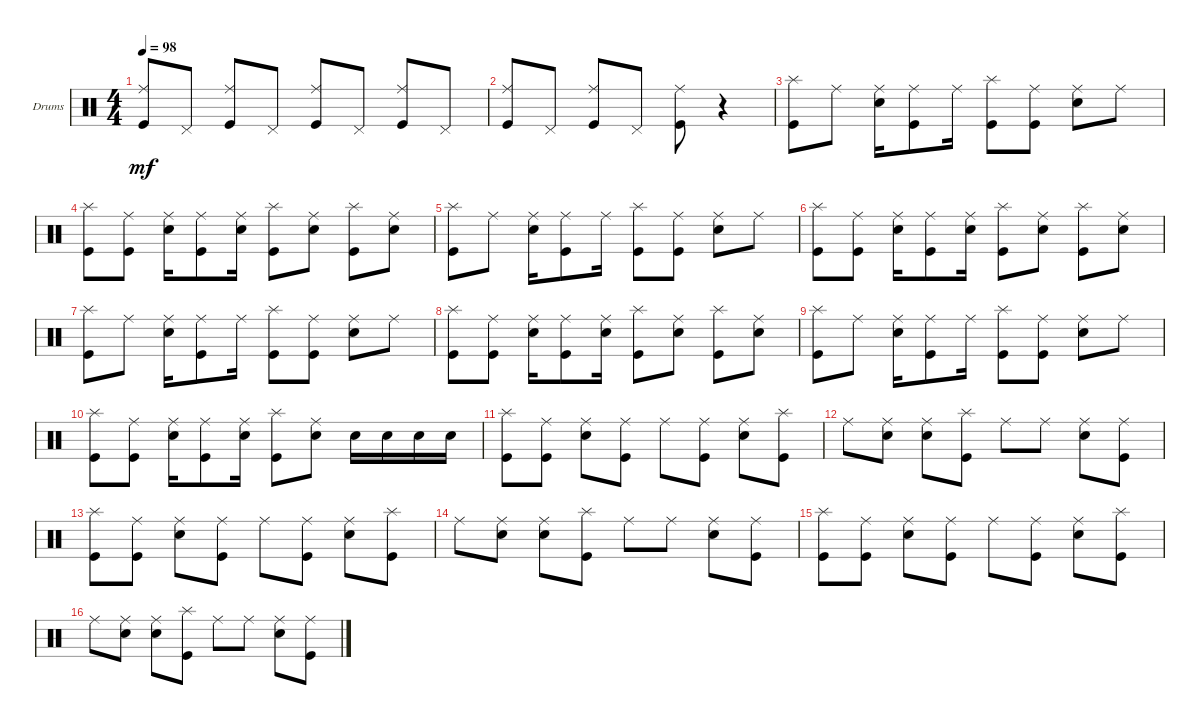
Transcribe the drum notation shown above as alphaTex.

\defaultSystemsLayout 4
\bracketExtendMode groupsimilarinstruments
\firstSystemTrackNameOrientation horizontal
\otherSystemsTrackNameOrientation horizontal
\track ("Frank Fontsere" "Drums") {instrument percussion}
\staff {score}
\articulation defaults
\ts (4 4)
\tempo 98
\clef neutral
\ks c
("Kick (hit)" "Ride (middle)").8{dy mf} "Pedal Hi-Hat (hit)".8 ("Ride (middle)" "Kick (hit)").8 "Pedal Hi-Hat (hit)".8 ("Ride (middle)" "Kick (hit)").8 "Pedal Hi-Hat (hit)".8 ("Kick (hit)" "Ride (middle)").8 "Pedal Hi-Hat (hit)".8 |
("Kick (hit)" "Ride (middle)").8 "Pedal Hi-Hat (hit)".8 ("Ride (middle)" "Kick (hit)").8 "Pedal Hi-Hat (hit)".8 ("Ride (middle)" "Kick (hit)").8 r.4 |
("Kick (hit)" "Splash (hit)").8 "Ride (middle)".8 ("Ride (middle)" "Snare (hit) 2").16 ("Ride (middle)" "Kick (hit)").8 "Ride (middle)".16 ("Kick (hit)" "Splash (hit)").8 ("Ride (middle)" "Kick (hit)").8 ("Snare (hit) 2" "Ride (middle)").8 "Ride (middle)".8 |
("Kick (hit)" "Splash (hit)").8 ("Kick (hit)" "Ride (middle)").8 ("Snare (hit) 2" "Ride (middle)").16 ("Kick (hit)" "Ride (middle)").8 ("Ride (middle)" "Snare (hit) 2").16 ("Kick (hit)" "Splash (hit)").8 ("Snare (hit) 2" "Ride (middle)").8 ("Kick (hit)" "Splash (hit)").8 ("Snare (hit) 2" "Ride (middle)").8 |
("Kick (hit)" "Splash (hit)").8 "Ride (middle)".8 ("Ride (middle)" "Snare (hit) 2").16 ("Ride (middle)" "Kick (hit)").8 "Ride (middle)".16 ("Kick (hit)" "Splash (hit)").8 ("Ride (middle)" "Kick (hit)").8 ("Snare (hit) 2" "Ride (middle)").8 "Ride (middle)".8 |
("Kick (hit)" "Splash (hit)").8 ("Kick (hit)" "Ride (middle)").8 ("Snare (hit) 2" "Ride (middle)").16 ("Kick (hit)" "Ride (middle)").8 ("Ride (middle)" "Snare (hit) 2").16 ("Kick (hit)" "Splash (hit)").8 ("Snare (hit) 2" "Ride (middle)").8 ("Kick (hit)" "Splash (hit)").8 ("Snare (hit) 2" "Ride (middle)").8 |
("Kick (hit)" "Splash (hit)").8 "Ride (middle)".8 ("Ride (middle)" "Snare (hit) 2").16 ("Ride (middle)" "Kick (hit)").8 "Ride (middle)".16 ("Kick (hit)" "Splash (hit)").8 ("Ride (middle)" "Kick (hit)").8 ("Snare (hit) 2" "Ride (middle)").8 "Ride (middle)".8 |
("Kick (hit)" "Splash (hit)").8 ("Kick (hit)" "Ride (middle)").8 ("Snare (hit) 2" "Ride (middle)").16 ("Kick (hit)" "Ride (middle)").8 ("Ride (middle)" "Snare (hit) 2").16 ("Kick (hit)" "Splash (hit)").8 ("Snare (hit) 2" "Ride (middle)").8 ("Kick (hit)" "Splash (hit)").8 ("Snare (hit) 2" "Ride (middle)").8 |
("Kick (hit)" "Splash (hit)").8 "Ride (middle)".8 ("Ride (middle)" "Snare (hit) 2").16 ("Ride (middle)" "Kick (hit)").8 "Ride (middle)".16 ("Kick (hit)" "Splash (hit)").8 ("Ride (middle)" "Kick (hit)").8 ("Snare (hit) 2" "Ride (middle)").8 "Ride (middle)".8 |
("Kick (hit)" "Splash (hit)").8 ("Kick (hit)" "Ride (middle)").8 ("Snare (hit) 2" "Ride (middle)").16 ("Kick (hit)" "Ride (middle)").8 ("Ride (middle)" "Snare (hit) 2").16 ("Kick (hit)" "Splash (hit)").8 ("Snare (hit) 2" "Ride (middle)").8 "Snare (hit) 2".16 "Snare (hit) 2".16 "Snare (hit) 2".16 "Snare (hit) 2".16 |
("Kick (hit)" "Splash (hit)").8 ("Ride (middle)" "Kick (hit)").8 ("Ride (middle)" "Snare (hit) 2").8 ("Kick (hit)" "Ride (middle)").8 "Ride (middle)".8 ("Ride (middle)" "Kick (hit)").8 ("Ride (middle)" "Snare (hit) 2").8 ("Kick (hit)" "Splash (hit)").8 |
"Ride (middle)".8 ("Snare (hit) 2" "Ride (middle)").8 ("Ride (middle)" "Snare (hit) 2").8 ("Splash (hit)" "Kick (hit)").8 "Ride (middle)".8 "Ride (middle)".8 ("Snare (hit) 2" "Ride (middle)").8 ("Kick (hit)" "Ride (middle)").8 |
("Kick (hit)" "Splash (hit)").8 ("Ride (middle)" "Kick (hit)").8 ("Ride (middle)" "Snare (hit) 2").8 ("Kick (hit)" "Ride (middle)").8 "Ride (middle)".8 ("Ride (middle)" "Kick (hit)").8 ("Ride (middle)" "Snare (hit) 2").8 ("Kick (hit)" "Splash (hit)").8 |
"Ride (middle)".8 ("Snare (hit) 2" "Ride (middle)").8 ("Ride (middle)" "Snare (hit) 2").8 ("Splash (hit)" "Kick (hit)").8 "Ride (middle)".8 "Ride (middle)".8 ("Snare (hit) 2" "Ride (middle)").8 ("Kick (hit)" "Ride (middle)").8 |
("Kick (hit)" "Splash (hit)").8 ("Ride (middle)" "Kick (hit)").8 ("Ride (middle)" "Snare (hit) 2").8 ("Kick (hit)" "Ride (middle)").8 "Ride (middle)".8 ("Ride (middle)" "Kick (hit)").8 ("Ride (middle)" "Snare (hit) 2").8 ("Kick (hit)" "Splash (hit)").8 |
"Ride (middle)".8 ("Snare (hit) 2" "Ride (middle)").8 ("Ride (middle)" "Snare (hit) 2").8 ("Splash (hit)" "Kick (hit)").8 "Ride (middle)".8 "Ride (middle)".8 ("Snare (hit) 2" "Ride (middle)").8 ("Kick (hit)" "Ride (middle)").8
